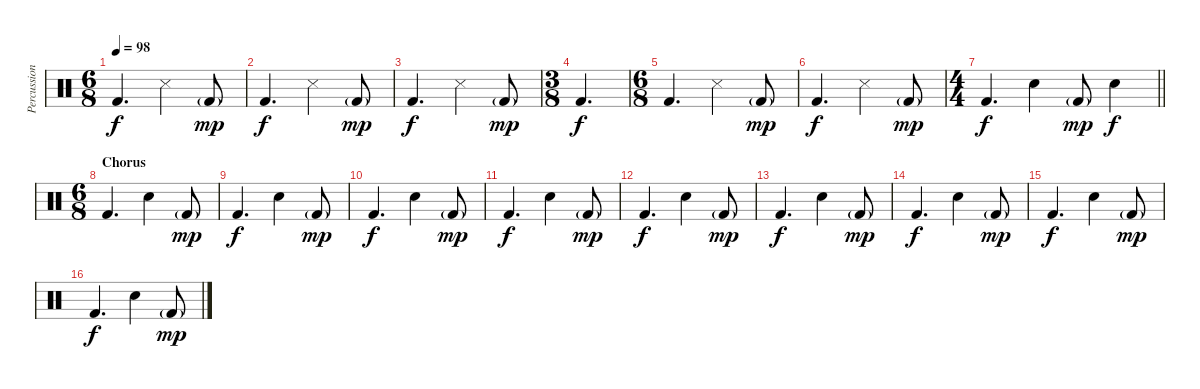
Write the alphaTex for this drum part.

\track ("Percussion" "Percussion") {instrument percussion}
\staff {score}
\articulation defaults
\ts (6 8)
\tempo 98
\clef neutral
\ks c "Kick (hit) 2".4{d dy f} "Snare (side stick) 3".4 "Kick (hit) 2"{g}.8{dy mp}
|
"Kick (hit) 2".4{d dy f} "Snare (side stick) 3".4 "Kick (hit) 2"{g}.8{dy mp} |
"Kick (hit) 2".4{d dy f} "Snare (side stick) 3".4 "Kick (hit) 2"{g}.8{dy mp} |
\ts (3 8)
"Kick (hit) 2".4{d dy f} |
\ts (6 8)
"Kick (hit) 2".4{d} "Snare (side stick) 3".4 "Kick (hit) 2"{g}.8{dy mp} |
"Kick (hit) 2".4{d dy f} "Snare (side stick) 3".4 "Kick (hit) 2"{g}.8{dy mp} |
\ts (4 4)
\barLineRight lightlight "Kick (hit) 2".4{d dy f} "Snare (hit) 2".4 "Kick (hit) 2"{g}.8{dy mp} "Snare (hit) 2".4{dy f}
|
\ts (6 8)
\section ("" "Chorus")
"Kick (hit) 2".4{d} "Snare (hit) 2".4 "Kick (hit) 2"{g}.8{dy mp} |
"Kick (hit) 2".4{d dy f} "Snare (hit) 2".4 "Kick (hit) 2"{g}.8{dy mp} |
"Kick (hit) 2".4{d dy f} "Snare (hit) 2".4 "Kick (hit) 2"{g}.8{dy mp} |
"Kick (hit) 2".4{d dy f} "Snare (hit) 2".4 "Kick (hit) 2"{g}.8{dy mp} |
"Kick (hit) 2".4{d dy f} "Snare (hit) 2".4 "Kick (hit) 2"{g}.8{dy mp} |
"Kick (hit) 2".4{d dy f} "Snare (hit) 2".4 "Kick (hit) 2"{g}.8{dy mp} |
"Kick (hit) 2".4{d dy f} "Snare (hit) 2".4 "Kick (hit) 2"{g}.8{dy mp} |
"Kick (hit) 2".4{d dy f} "Snare (hit) 2".4 "Kick (hit) 2"{g}.8{dy mp} |
"Kick (hit) 2".4{d dy f} "Snare (hit) 2".4 "Kick (hit) 2"{g}.8{dy mp}
